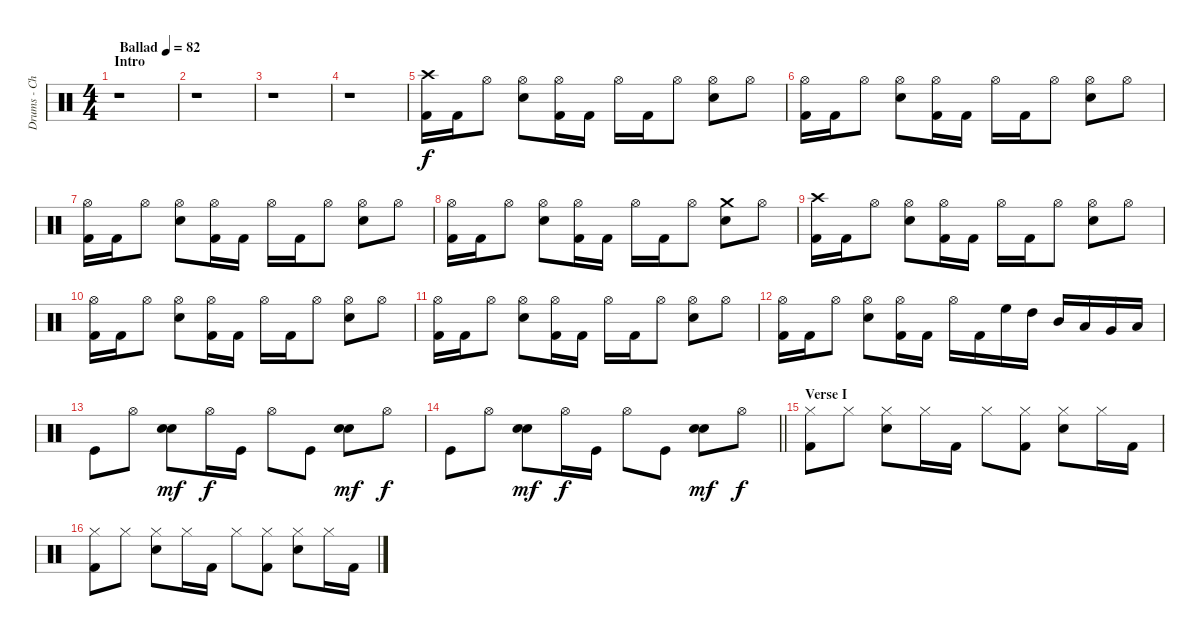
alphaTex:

\track ("Drums - Christoph Schneider" "Drums - Ch") {instrument percussion}
\staff {score}
\articulation defaults
\ts (4 4)
\section ("" "Intro")
\tempo (82 "Ballad")
\clef neutral
\ks c
r.1{dy f} |
r.1 |
r.1 |
r.1 |
("Crash high (hit)" "Kick (hit) 2").16 "Kick (hit) 2".16 "Hi-Hat (open)".8 ("Hi-Hat (open)" "Snare (hit) 2").8 ("Hi-Hat (open)" "Kick (hit) 2").16 "Kick (hit) 2".16 "Hi-Hat (open)".16 "Kick (hit) 2".16 "Hi-Hat (open)".8 ("Hi-Hat (open)" "Snare (hit) 2").8 "Hi-Hat (open)".8 |
("Hi-Hat (open)" "Kick (hit) 2").16 "Kick (hit) 2".16 "Hi-Hat (open)".8 ("Hi-Hat (open)" "Snare (hit) 2").8 ("Hi-Hat (open)" "Kick (hit) 2").16 "Kick (hit) 2".16 "Hi-Hat (open)".16 "Kick (hit) 2".16 "Hi-Hat (open)".8 ("Hi-Hat (open)" "Snare (hit) 2").8 "Hi-Hat (open)".8 |
("Hi-Hat (open)" "Kick (hit) 2").16 "Kick (hit) 2".16 "Hi-Hat (open)".8 ("Hi-Hat (open)" "Snare (hit) 2").8 ("Hi-Hat (open)" "Kick (hit) 2").16 "Kick (hit) 2".16 "Hi-Hat (open)".16 "Kick (hit) 2".16 "Hi-Hat (open)".8 ("Hi-Hat (open)" "Snare (hit) 2").8 "Hi-Hat (open)".8 |
("Hi-Hat (open)" "Kick (hit) 2").16 "Kick (hit) 2".16 "Hi-Hat (open)".8 ("Hi-Hat (open)" "Snare (hit) 2").8 ("Hi-Hat (open)" "Kick (hit) 2").16 "Kick (hit) 2".16 "Hi-Hat (open)".16 "Kick (hit) 2".16 "Hi-Hat (open)".8 ("Crash medium (hit)" "Snare (hit) 2").8 "Hi-Hat (open)".8 |
("Crash high (hit)" "Kick (hit) 2").16 "Kick (hit) 2".16 "Hi-Hat (open)".8 ("Hi-Hat (open)" "Snare (hit) 2").8 ("Hi-Hat (open)" "Kick (hit) 2").16 "Kick (hit) 2".16 "Hi-Hat (open)".16 "Kick (hit) 2".16 "Hi-Hat (open)".8 ("Hi-Hat (open)" "Snare (hit) 2").8 "Hi-Hat (open)".8 |
("Hi-Hat (open)" "Kick (hit) 2").16 "Kick (hit) 2".16 "Hi-Hat (open)".8 ("Hi-Hat (open)" "Snare (hit) 2").8 ("Hi-Hat (open)" "Kick (hit) 2").16 "Kick (hit) 2".16 "Hi-Hat (open)".16 "Kick (hit) 2".16 "Hi-Hat (open)".8 ("Hi-Hat (open)" "Snare (hit) 2").8 "Hi-Hat (open)".8 |
("Hi-Hat (open)" "Kick (hit) 2").16 "Kick (hit) 2".16 "Hi-Hat (open)".8 ("Hi-Hat (open)" "Snare (hit) 2").8 ("Hi-Hat (open)" "Kick (hit) 2").16 "Kick (hit) 2".16 "Hi-Hat (open)".16 "Kick (hit) 2".16 "Hi-Hat (open)".8 ("Hi-Hat (open)" "Snare (hit) 2").8 "Hi-Hat (open)".8 |
("Hi-Hat (open)" "Kick (hit) 2").16 "Kick (hit) 2".16 "Hi-Hat (open)".8 ("Hi-Hat (open)" "Snare (hit) 2").8 ("Hi-Hat (open)" "Kick (hit) 2").16 "Kick (hit) 2".16 "Hi-Hat (open)".16 "Kick (hit) 2".16 "High Floor Tom (hit)".16 "High Tom (hit)".16 "Mid Tom (hit)".16 "Low Tom (hit)".16 "Very Low Tom (hit)".16 "Low Floor Tom (hit)".16 |
"Kick (hit)".8 "Hi-Hat (open)".8 ("Hand Clap (hit)" "Snare (hit) 2").8{dy mf} "Hi-Hat (open)".16{dy f} "Kick (hit)".16 "Hi-Hat (open)".8 "Kick (hit)".8 ("Hand Clap (hit)" "Snare (hit) 2").8{dy mf} "Hi-Hat (open)".8{dy f} |
\barLineRight lightlight "Kick (hit)".8 "Hi-Hat (open)".8
("Hand Clap (hit)" "Snare (hit) 2").8{dy mf} "Hi-Hat (open)".16{dy f} "Kick (hit)".16 "Hi-Hat (open)".8 "Kick (hit)".8 ("Hand Clap (hit)" "Snare (hit) 2").8{dy mf} "Hi-Hat (open)".8{dy f} |
\section ("" "Verse I")
("Hi-Hat (closed)" "Kick (hit) 2").8 "Hi-Hat (closed)".8 ("Hi-Hat (closed)" "Snare (hit) 2").8 "Hi-Hat (closed)".16 "Kick (hit) 2".16 "Hi-Hat (closed)".8 ("Hi-Hat (closed)" "Kick (hit) 2").8 ("Hi-Hat (closed)" "Snare (hit) 2").8 "Hi-Hat (closed)".16 "Kick (hit) 2".16 |
("Hi-Hat (closed)" "Kick (hit) 2").8 "Hi-Hat (closed)".8 ("Hi-Hat (closed)" "Snare (hit) 2").8 "Hi-Hat (closed)".16 "Kick (hit) 2".16 "Hi-Hat (closed)".8 ("Hi-Hat (closed)" "Kick (hit) 2").8 ("Hi-Hat (closed)" "Snare (hit) 2").8 "Hi-Hat (closed)".16 "Kick (hit) 2".16
